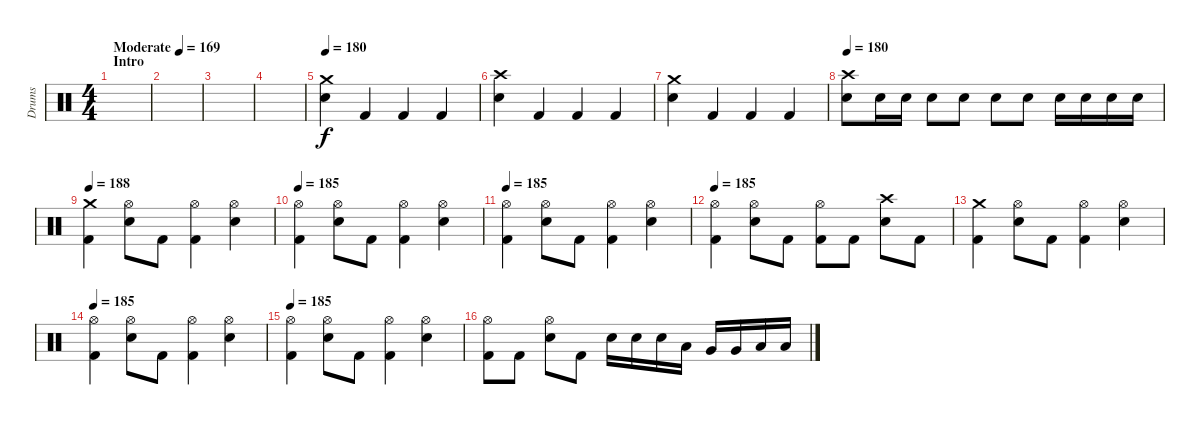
\track ("Drums" "Drums") {instrument percussion}
\staff {score}
\articulation defaults
\ts (4 4)
\section ("" "Intro")
\tempo (169 "Moderate")
\clef neutral
\ks c
|
|
|
|
\tempo 180
("Crash medium (hit)" "Electric Snare (hit)").4 "Kick (hit) 2".4 "Kick (hit) 2".4 "Kick (hit) 2".4 |
("Crash high (hit)" "Electric Snare (hit)").4 "Kick (hit) 2".4 "Kick (hit) 2".4 "Kick (hit) 2".4 |
("Crash medium (hit)" "Electric Snare (hit)").4 "Kick (hit) 2".4 "Kick (hit) 2".4 "Kick (hit) 2".4 |
\tempo 180
("Crash high (hit)" "Electric Snare (hit)").8 "Electric Snare (hit)".16 "Electric Snare (hit)".16 "Electric Snare (hit)".8 "Electric Snare (hit)".8 "Electric Snare (hit)".8 "Electric Snare (hit)".8 "Electric Snare (hit)".16 "Electric Snare (hit)".16 "Electric Snare (hit)".16 "Electric Snare (hit)".16 |
\tempo 188
("Crash medium (hit)" "Kick (hit) 2").4 ("Hi-Hat (open)" "Electric Snare (hit)").8 "Kick (hit) 2".8 ("Hi-Hat (open)" "Kick (hit) 2").4 ("Hi-Hat (open)" "Electric Snare (hit)").4 |
\tempo 185
("Hi-Hat (open)" "Kick (hit) 2").4 ("Hi-Hat (open)" "Electric Snare (hit)").8 "Kick (hit) 2".8 ("Hi-Hat (open)" "Kick (hit) 2").4 ("Hi-Hat (open)" "Electric Snare (hit)").4 |
\tempo 185
("Hi-Hat (open)" "Kick (hit) 2").4 ("Hi-Hat (open)" "Electric Snare (hit)").8 "Kick (hit) 2".8 ("Hi-Hat (open)" "Kick (hit) 2").4 ("Hi-Hat (open)" "Electric Snare (hit)").4 |
\tempo 185
("Hi-Hat (open)" "Kick (hit) 2").4 ("Hi-Hat (open)" "Electric Snare (hit)").8 "Kick (hit) 2".8 ("Hi-Hat (open)" "Kick (hit) 2").8 "Kick (hit) 2".8 ("Crash high (hit)" "Electric Snare (hit)").8 "Kick (hit) 2".8 |
("Crash medium (hit)" "Kick (hit) 2").4 ("Hi-Hat (open)" "Electric Snare (hit)").8 "Kick (hit) 2".8 ("Hi-Hat (open)" "Kick (hit) 2").4 ("Hi-Hat (open)" "Electric Snare (hit)").4 |
\tempo 185
("Hi-Hat (open)" "Kick (hit) 2").4 ("Hi-Hat (open)" "Electric Snare (hit)").8 "Kick (hit) 2".8 ("Hi-Hat (open)" "Kick (hit) 2").4 ("Hi-Hat (open)" "Electric Snare (hit)").4 |
\tempo 185
("Hi-Hat (open)" "Kick (hit) 2").4 ("Hi-Hat (open)" "Electric Snare (hit)").8 "Kick (hit) 2".8 ("Hi-Hat (open)" "Kick (hit) 2").4 ("Hi-Hat (open)" "Electric Snare (hit)").4 |
("Hi-Hat (open)" "Kick (hit) 2").8 "Kick (hit) 2".8 ("Hi-Hat (open)" "Electric Snare (hit)").8 "Kick (hit) 2".8 "Electric Snare (hit)".16 "Electric Snare (hit)".16 "Electric Snare (hit)".16 "Low Tom (hit)".16 "Very Low Tom (hit)".16 "Very Low Tom (hit)".16 "Low Floor Tom (hit)".16 "Low Floor Tom (hit)".16
